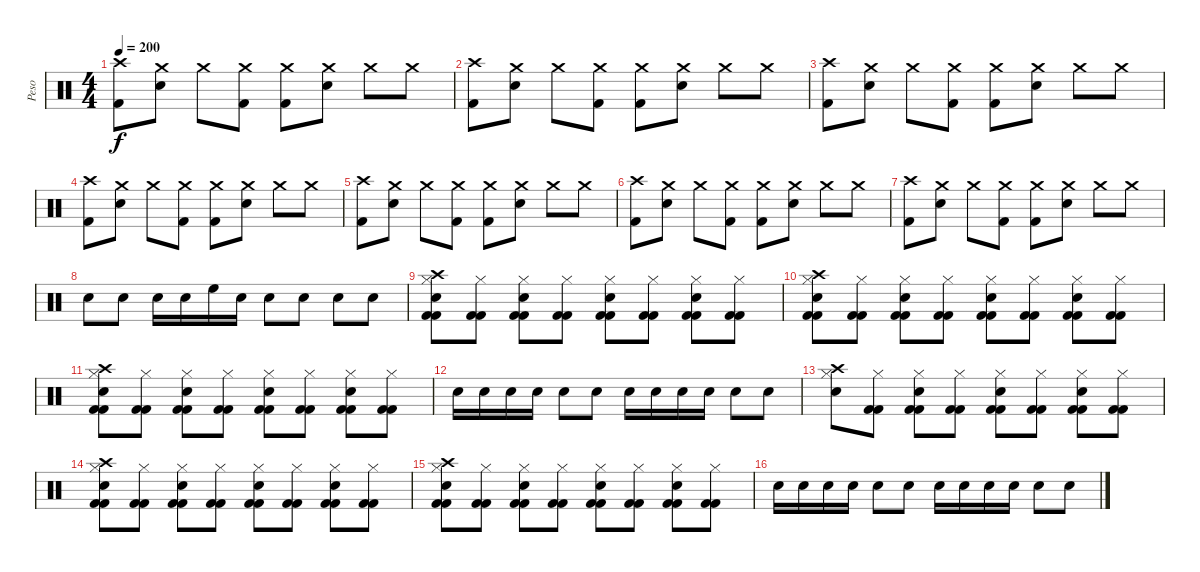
\track ("Peso" "Peso") {instrument percussion}
\staff {score}
\articulation defaults
\ts (4 4)
\tempo 200
\clef neutral
\ks c
("Crash high (hit)" "Kick (hit) 2").8{dy f} ("Crash medium (hit)"{x} "Snare (hit) 2").8 "Crash medium (hit)".8 ("Crash medium (hit)"{x} "Kick (hit) 2").8 ("Crash medium (hit)" "Kick (hit) 2").8 ("Crash medium (hit)"{x} "Snare (hit) 2").8 "Crash medium (hit)".8 "Crash medium (hit)"{x}.8 |
("Crash high (hit)" "Kick (hit) 2").8 ("Crash medium (hit)"{x} "Snare (hit) 2").8 "Crash medium (hit)".8 ("Crash medium (hit)"{x} "Kick (hit) 2").8 ("Crash medium (hit)" "Kick (hit) 2").8 ("Crash medium (hit)"{x} "Snare (hit) 2").8 "Crash medium (hit)".8 "Crash medium (hit)"{x}.8 |
("Crash high (hit)" "Kick (hit) 2").8 ("Crash medium (hit)"{x} "Snare (hit) 2").8 "Crash medium (hit)".8 ("Crash medium (hit)"{x} "Kick (hit) 2").8 ("Crash medium (hit)" "Kick (hit) 2").8 ("Crash medium (hit)"{x} "Snare (hit) 2").8 "Crash medium (hit)".8 "Crash medium (hit)"{x}.8 |
("Crash high (hit)" "Kick (hit) 2").8 ("Crash medium (hit)"{x} "Snare (hit) 2").8 "Crash medium (hit)".8 ("Crash medium (hit)"{x} "Kick (hit) 2").8 ("Crash medium (hit)" "Kick (hit) 2").8 ("Crash medium (hit)"{x} "Snare (hit) 2").8 "Crash medium (hit)".8 "Crash medium (hit)"{x}.8 |
("Crash high (hit)" "Kick (hit) 2").8 ("Crash medium (hit)"{x} "Snare (hit) 2").8 "Crash medium (hit)".8 ("Crash medium (hit)"{x} "Kick (hit) 2").8 ("Crash medium (hit)" "Kick (hit) 2").8 ("Crash medium (hit)"{x} "Snare (hit) 2").8 "Crash medium (hit)".8 "Crash medium (hit)"{x}.8 |
("Crash high (hit)" "Kick (hit) 2").8 ("Crash medium (hit)"{x} "Snare (hit) 2").8 "Crash medium (hit)".8 ("Crash medium (hit)"{x} "Kick (hit) 2").8 ("Crash medium (hit)" "Kick (hit) 2").8 ("Crash medium (hit)"{x} "Snare (hit) 2").8 "Crash medium (hit)".8 "Crash medium (hit)"{x}.8 |
("Crash high (hit)" "Kick (hit) 2").8 ("Crash medium (hit)"{x} "Snare (hit) 2").8 "Crash medium (hit)".8 ("Crash medium (hit)"{x} "Kick (hit) 2").8 ("Crash medium (hit)" "Kick (hit) 2").8 ("Crash medium (hit)"{x} "Snare (hit) 2").8 "Crash medium (hit)".8 "Crash medium (hit)"{x}.8 |
"Snare (hit) 2".8 "Snare (hit) 2".8 "Snare (hit) 2".16 "Snare (hit) 2".16 "High Floor Tom (hit)".16 "Snare (hit) 2".16 "Snare (hit) 2".8 "Snare (hit) 2".8 "Snare (hit) 2".8 "Snare (hit) 2".8 |
("Crash high (hit)" "Hi-Hat (closed)" "Snare (hit) 2" "Kick (hit) 2" "Kick (hit) 2").8 ("Hi-Hat (closed)" "Kick (hit) 2" "Kick (hit) 2").8 ("Hi-Hat (closed)" "Snare (hit) 2" "Kick (hit) 2" "Kick (hit) 2").8 ("Hi-Hat (closed)" "Kick (hit) 2" "Kick (hit) 2").8 ("Hi-Hat (closed)" "Snare (hit) 2" "Kick (hit) 2" "Kick (hit) 2").8 ("Hi-Hat (closed)" "Kick (hit) 2" "Kick (hit) 2").8 ("Hi-Hat (closed)" "Snare (hit) 2" "Kick (hit) 2" "Kick (hit) 2").8 ("Hi-Hat (closed)" "Kick (hit) 2" "Kick (hit) 2").8 |
("Crash high (hit)" "Hi-Hat (closed)" "Snare (hit) 2" "Kick (hit) 2" "Kick (hit) 2").8 ("Hi-Hat (closed)" "Kick (hit) 2" "Kick (hit) 2").8 ("Hi-Hat (closed)" "Snare (hit) 2" "Kick (hit) 2" "Kick (hit) 2").8 ("Hi-Hat (closed)" "Kick (hit) 2" "Kick (hit) 2").8 ("Hi-Hat (closed)" "Snare (hit) 2" "Kick (hit) 2" "Kick (hit) 2").8 ("Hi-Hat (closed)" "Kick (hit) 2" "Kick (hit) 2").8 ("Hi-Hat (closed)" "Snare (hit) 2" "Kick (hit) 2" "Kick (hit) 2").8 ("Hi-Hat (closed)" "Kick (hit) 2" "Kick (hit) 2").8 |
("Crash high (hit)" "Hi-Hat (closed)" "Snare (hit) 2" "Kick (hit) 2" "Kick (hit) 2").8 ("Hi-Hat (closed)" "Kick (hit) 2" "Kick (hit) 2").8 ("Hi-Hat (closed)" "Snare (hit) 2" "Kick (hit) 2" "Kick (hit) 2").8 ("Hi-Hat (closed)" "Kick (hit) 2" "Kick (hit) 2").8 ("Hi-Hat (closed)" "Snare (hit) 2" "Kick (hit) 2" "Kick (hit) 2").8 ("Hi-Hat (closed)" "Kick (hit) 2" "Kick (hit) 2").8 ("Hi-Hat (closed)" "Snare (hit) 2" "Kick (hit) 2" "Kick (hit) 2").8 ("Hi-Hat (closed)" "Kick (hit) 2" "Kick (hit) 2").8 |
"Snare (hit) 2".16 "Snare (hit) 2".16 "Snare (hit) 2".16 "Snare (hit) 2".16 "Snare (hit) 2".8 "Snare (hit) 2".8 "Snare (hit) 2".16 "Snare (hit) 2".16 "Snare (hit) 2".16 "Snare (hit) 2".16 "Snare (hit) 2".8 "Snare (hit) 2".8 |
("Crash high (hit)" "Hi-Hat (closed)" "Snare (hit) 2").8 ("Hi-Hat (closed)" "Kick (hit) 2" "Kick (hit) 2").8 ("Hi-Hat (closed)" "Snare (hit) 2" "Kick (hit) 2" "Kick (hit) 2").8 ("Hi-Hat (closed)" "Kick (hit) 2" "Kick (hit) 2").8 ("Hi-Hat (closed)" "Snare (hit) 2" "Kick (hit) 2" "Kick (hit) 2").8 ("Hi-Hat (closed)" "Kick (hit) 2" "Kick (hit) 2").8 ("Hi-Hat (closed)" "Snare (hit) 2" "Kick (hit) 2" "Kick (hit) 2").8 ("Hi-Hat (closed)" "Kick (hit) 2" "Kick (hit) 2").8 |
("Crash high (hit)" "Hi-Hat (closed)" "Snare (hit) 2" "Kick (hit) 2" "Kick (hit) 2").8 ("Hi-Hat (closed)" "Kick (hit) 2" "Kick (hit) 2").8 ("Hi-Hat (closed)" "Snare (hit) 2" "Kick (hit) 2" "Kick (hit) 2").8 ("Hi-Hat (closed)" "Kick (hit) 2" "Kick (hit) 2").8 ("Hi-Hat (closed)" "Snare (hit) 2" "Kick (hit) 2" "Kick (hit) 2").8 ("Hi-Hat (closed)" "Kick (hit) 2" "Kick (hit) 2").8 ("Hi-Hat (closed)" "Snare (hit) 2" "Kick (hit) 2" "Kick (hit) 2").8 ("Hi-Hat (closed)" "Kick (hit) 2" "Kick (hit) 2").8 |
("Crash high (hit)" "Hi-Hat (closed)" "Snare (hit) 2" "Kick (hit) 2" "Kick (hit) 2").8 ("Hi-Hat (closed)" "Kick (hit) 2" "Kick (hit) 2").8 ("Hi-Hat (closed)" "Snare (hit) 2" "Kick (hit) 2" "Kick (hit) 2").8 ("Hi-Hat (closed)" "Kick (hit) 2" "Kick (hit) 2").8 ("Hi-Hat (closed)" "Snare (hit) 2" "Kick (hit) 2" "Kick (hit) 2").8 ("Hi-Hat (closed)" "Kick (hit) 2" "Kick (hit) 2").8 ("Hi-Hat (closed)" "Snare (hit) 2" "Kick (hit) 2" "Kick (hit) 2").8 ("Hi-Hat (closed)" "Kick (hit) 2" "Kick (hit) 2").8 |
"Snare (hit) 2".16 "Snare (hit) 2".16 "Snare (hit) 2".16 "Snare (hit) 2".16 "Snare (hit) 2".8 "Snare (hit) 2".8 "Snare (hit) 2".16 "Snare (hit) 2".16 "Snare (hit) 2".16 "Snare (hit) 2".16 "Snare (hit) 2".8 "Snare (hit) 2".8
